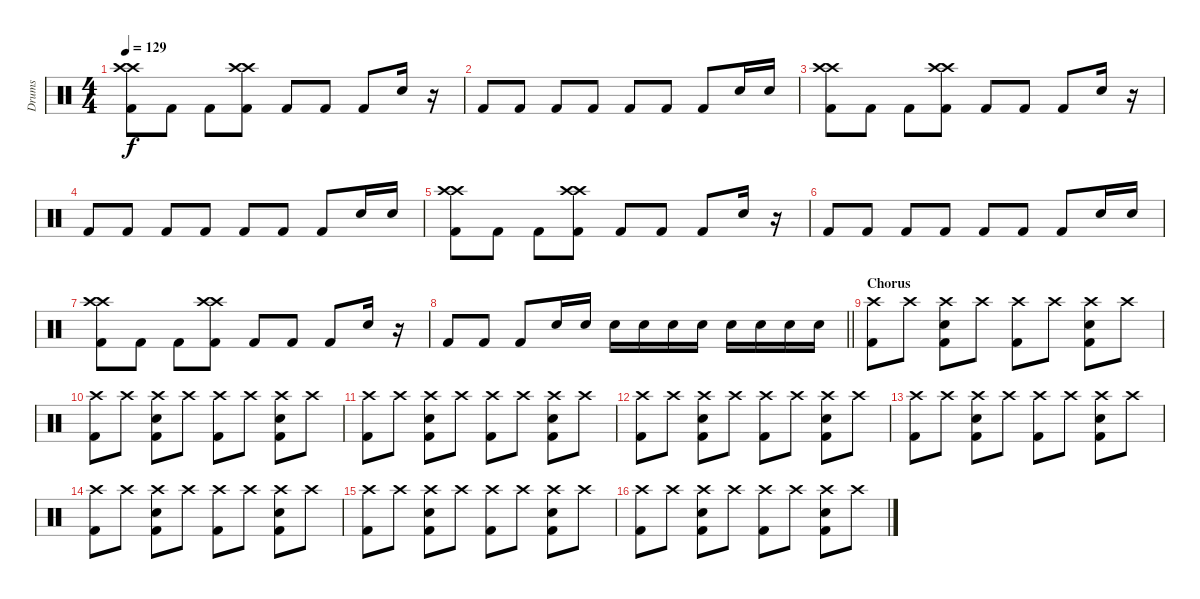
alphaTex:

\track ("Drums" "Drums") {instrument percussion}
\staff {score}
\articulation defaults
\ts (4 4)
\tempo 129
\clef neutral
\ks c
("Crash high (hit)" "Crash high (hit)" "Kick (hit) 2").8{dy f} "Kick (hit) 2".8 "Kick (hit) 2".8 ("Crash high (hit)" "Crash high (hit)" "Kick (hit) 2").8 "Kick (hit) 2".8 "Kick (hit) 2".8 "Kick (hit) 2".8 "Snare (hit) 2".16 r.16 |
"Kick (hit) 2".8 "Kick (hit) 2".8 "Kick (hit) 2".8 "Kick (hit) 2".8 "Kick (hit) 2".8 "Kick (hit) 2".8 "Kick (hit) 2".8 "Snare (hit) 2".16 "Snare (hit) 2".16 |
("Crash high (hit)" "Crash high (hit)" "Kick (hit) 2").8 "Kick (hit) 2".8 "Kick (hit) 2".8 ("Crash high (hit)" "Crash high (hit)" "Kick (hit) 2").8 "Kick (hit) 2".8 "Kick (hit) 2".8 "Kick (hit) 2".8 "Snare (hit) 2".16 r.16 |
"Kick (hit) 2".8 "Kick (hit) 2".8 "Kick (hit) 2".8 "Kick (hit) 2".8 "Kick (hit) 2".8 "Kick (hit) 2".8 "Kick (hit) 2".8 "Snare (hit) 2".16 "Snare (hit) 2".16 |
("Crash high (hit)" "Crash high (hit)" "Kick (hit) 2").8 "Kick (hit) 2".8 "Kick (hit) 2".8 ("Crash high (hit)" "Crash high (hit)" "Kick (hit) 2").8 "Kick (hit) 2".8 "Kick (hit) 2".8 "Kick (hit) 2".8 "Snare (hit) 2".16 r.16 |
"Kick (hit) 2".8 "Kick (hit) 2".8 "Kick (hit) 2".8 "Kick (hit) 2".8 "Kick (hit) 2".8 "Kick (hit) 2".8 "Kick (hit) 2".8 "Snare (hit) 2".16 "Snare (hit) 2".16 |
("Crash high (hit)" "Crash high (hit)" "Kick (hit) 2").8 "Kick (hit) 2".8 "Kick (hit) 2".8 ("Crash high (hit)" "Crash high (hit)" "Kick (hit) 2").8 "Kick (hit) 2".8 "Kick (hit) 2".8 "Kick (hit) 2".8 "Snare (hit) 2".16 r.16 |
\barLineRight lightlight "Kick (hit) 2".8 "Kick (hit) 2".8 "Kick (hit) 2".8 "Snare (hit) 2".16 "Snare (hit) 2".16 "Snare (hit) 2".16 "Snare (hit) 2".16 "Snare (hit) 2".16 "Snare (hit) 2".16 "Snare (hit) 2".16 "Snare (hit) 2".16 "Snare (hit) 2".16 "Snare (hit) 2".16
|
\section ("" "Chorus")
("Crash high (hit)" "Kick (hit) 2").8 "Crash high (hit)".8 ("Crash high (hit)" "Snare (hit) 2" "Kick (hit) 2").8 "Crash high (hit)".8 ("Crash high (hit)" "Kick (hit) 2").8 "Crash high (hit)".8 ("Crash high (hit)" "Snare (hit) 2" "Kick (hit) 2").8 "Crash high (hit)".8 |
("Crash high (hit)" "Kick (hit) 2").8 "Crash high (hit)".8 ("Crash high (hit)" "Snare (hit) 2" "Kick (hit) 2").8 "Crash high (hit)".8 ("Crash high (hit)" "Kick (hit) 2").8 "Crash high (hit)".8 ("Crash high (hit)" "Snare (hit) 2" "Kick (hit) 2").8 "Crash high (hit)".8 |
("Crash high (hit)" "Kick (hit) 2").8 "Crash high (hit)".8 ("Crash high (hit)" "Snare (hit) 2" "Kick (hit) 2").8 "Crash high (hit)".8 ("Crash high (hit)" "Kick (hit) 2").8 "Crash high (hit)".8 ("Crash high (hit)" "Snare (hit) 2" "Kick (hit) 2").8 "Crash high (hit)".8 |
("Crash high (hit)" "Kick (hit) 2").8 "Crash high (hit)".8 ("Crash high (hit)" "Snare (hit) 2" "Kick (hit) 2").8 "Crash high (hit)".8 ("Crash high (hit)" "Kick (hit) 2").8 "Crash high (hit)".8 ("Crash high (hit)" "Snare (hit) 2" "Kick (hit) 2").8 "Crash high (hit)".8 |
("Crash high (hit)" "Kick (hit) 2").8 "Crash high (hit)".8 ("Crash high (hit)" "Snare (hit) 2" "Kick (hit) 2").8 "Crash high (hit)".8 ("Crash high (hit)" "Kick (hit) 2").8 "Crash high (hit)".8 ("Crash high (hit)" "Snare (hit) 2" "Kick (hit) 2").8 "Crash high (hit)".8 |
("Crash high (hit)" "Kick (hit) 2").8 "Crash high (hit)".8 ("Crash high (hit)" "Snare (hit) 2" "Kick (hit) 2").8 "Crash high (hit)".8 ("Crash high (hit)" "Kick (hit) 2").8 "Crash high (hit)".8 ("Crash high (hit)" "Snare (hit) 2" "Kick (hit) 2").8 "Crash high (hit)".8 |
("Crash high (hit)" "Kick (hit) 2").8 "Crash high (hit)".8 ("Crash high (hit)" "Snare (hit) 2" "Kick (hit) 2").8 "Crash high (hit)".8 ("Crash high (hit)" "Kick (hit) 2").8 "Crash high (hit)".8 ("Crash high (hit)" "Snare (hit) 2" "Kick (hit) 2").8 "Crash high (hit)".8 |
("Crash high (hit)" "Kick (hit) 2").8 "Crash high (hit)".8 ("Crash high (hit)" "Snare (hit) 2" "Kick (hit) 2").8 "Crash high (hit)".8 ("Crash high (hit)" "Kick (hit) 2").8 "Crash high (hit)".8 ("Crash high (hit)" "Snare (hit) 2" "Kick (hit) 2").8 "Crash high (hit)".8
